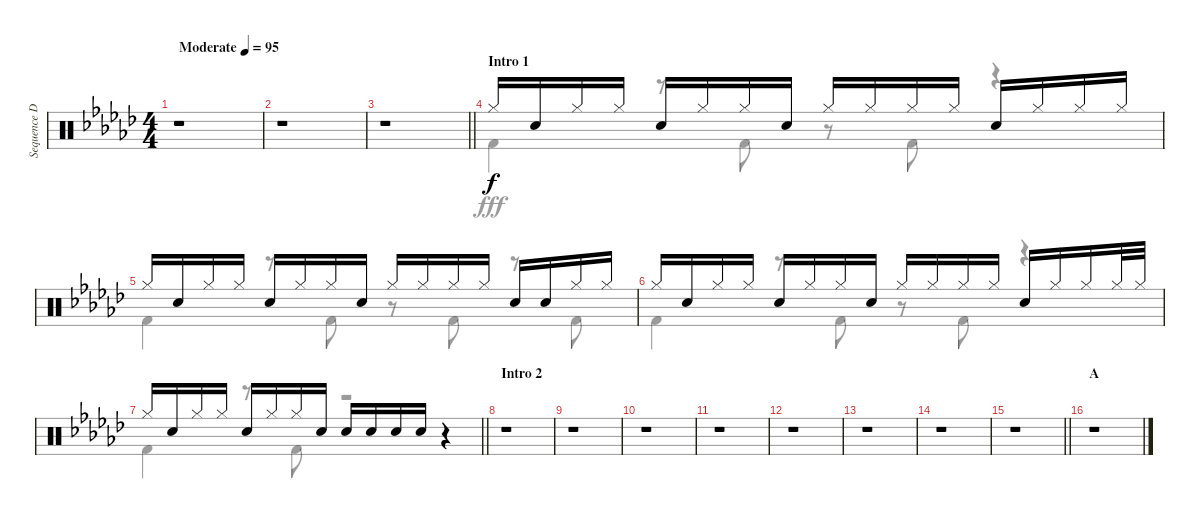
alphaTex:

\track ("Sequence Drums" "Sequence D") {instrument percussion}
\staff {score}
\articulation defaults
\voice
\ts (4 4)
\tempo (95 "Moderate")
\clef neutral
\ks gb
r.1{dy f} |
r.1 |
\barLineRight lightlight
r.1 |
\section ("" "Intro 1")
"Hi-Hat (closed)".16 "Snare (hit) 2".16 "Hi-Hat (closed)".16 "Hi-Hat (closed)".16 "Snare (hit) 2".16 "Hi-Hat (closed)".16 "Hi-Hat (closed)".16 "Snare (hit) 2".16 "Hi-Hat (closed)".16 "Hi-Hat (closed)".16 "Hi-Hat (closed)".16 "Hi-Hat (closed)".16 "Snare (hit) 2".16 "Hi-Hat (closed)".16 "Hi-Hat (closed)".16 "Hi-Hat (closed)".16 |
"Hi-Hat (closed)".16 "Snare (hit) 2".16 "Hi-Hat (closed)".16 "Hi-Hat (closed)".16 "Snare (hit) 2".16 "Hi-Hat (closed)".16 "Hi-Hat (closed)".16 "Snare (hit) 2".16 "Hi-Hat (closed)".16 "Hi-Hat (closed)".16 "Hi-Hat (closed)".16 "Hi-Hat (closed)".16 "Snare (hit) 2".16 "Snare (hit) 2".16 "Hi-Hat (closed)".16 "Hi-Hat (closed)".16 |
"Hi-Hat (closed)".16 "Snare (hit) 2".16 "Hi-Hat (closed)".16 "Hi-Hat (closed)".16 "Snare (hit) 2".16 "Hi-Hat (closed)".16 "Hi-Hat (closed)".16 "Snare (hit) 2".16 "Hi-Hat (closed)".16 "Hi-Hat (closed)".16 "Hi-Hat (closed)".16 "Hi-Hat (closed)".16 "Snare (hit) 2".16 "Hi-Hat (closed)".16 "Hi-Hat (closed)".16 "Hi-Hat (closed)".32 "Hi-Hat (closed)".32 |
\barLineRight lightlight "Hi-Hat (closed)".16 "Snare (hit) 2".16 "Hi-Hat (closed)".16 "Hi-Hat (closed)".16 "Snare (hit) 2".16 "Hi-Hat (closed)".16 "Hi-Hat (closed)".16 "Snare (hit) 2".16 "Snare (hit) 2".16 "Snare (hit) 2".16 "Snare (hit) 2".16 "Snare (hit) 2".16
r.4 |
\section ("" "Intro 2")
r.1 |
r.1 |
r.1 |
r.1 |
r.1 |
r.1 |
r.1 |
\barLineRight lightlight
r.1 |
\section ("" "A")
r.1
\voice
\clef neutral
\ottava regular
\simile none
\ks gb
r.1{dy fff} |
r.1 |
\barLineRight lightlight
r.1 |
"Kick (hit) 2".4 r.8 "Kick (hit) 2".8 r.8 "Kick (hit) 2".8 r.4 |
"Kick (hit) 2".4 r.8 "Kick (hit) 2".8 r.8 "Kick (hit) 2".8 r.8 "Kick (hit) 2".8 |
"Kick (hit) 2".4 r.8 "Kick (hit) 2".8 r.8 "Kick (hit) 2".8 r.4 |
\barLineRight lightlight "Kick (hit) 2".4
r.8 "Kick (hit) 2".8 r.2 |
r.1 |
r.1 |
r.1 |
r.1 |
r.1 |
r.1 |
r.1 |
\barLineRight lightlight
r.1 |
r.1
